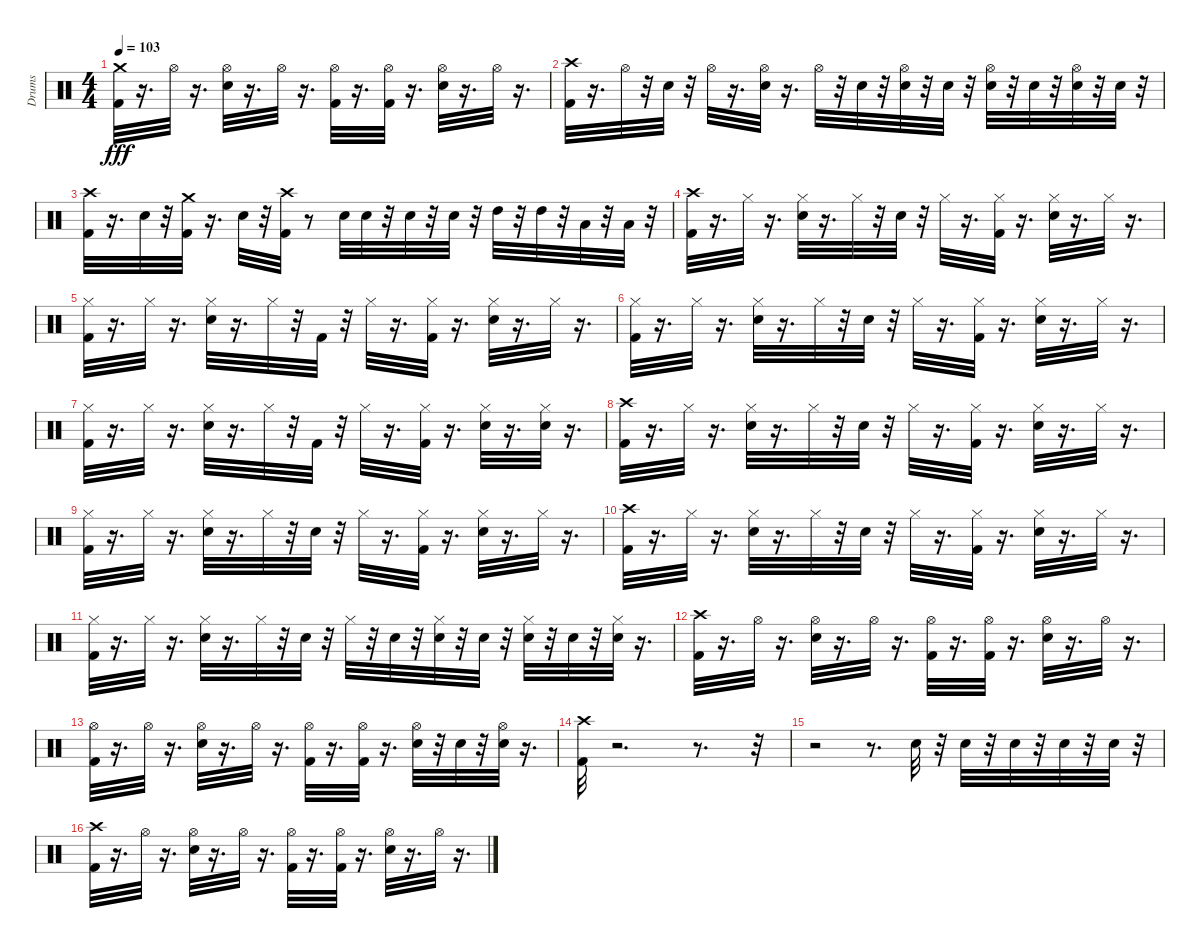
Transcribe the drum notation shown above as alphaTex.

\track ("Drums" "Drums") {instrument percussion}
\staff {score}
\articulation defaults
\ts (4 4)
\tempo 103
\clef neutral
\ks c
("Crash medium (hit)" "Kick (hit) 2").32{dy fff} r.16{d} "Hi-Hat (open)".32 r.16{d} ("Hi-Hat (open)" "Electric Snare (hit)").32 r.16{d} "Hi-Hat (open)".32 r.16{d} ("Hi-Hat (open)" "Kick (hit) 2").32 r.16{d} ("Kick (hit) 2" "Hi-Hat (open)").32 r.16{d} ("Electric Snare (hit)" "Hi-Hat (open)").32 r.16{d} "Hi-Hat (open)".32 r.16{d} |
("Crash high (hit)" "Kick (hit) 2").32 r.16{d} "Hi-Hat (open)".32 r.32 "Electric Snare (hit)".32 r.32 "Hi-Hat (open)".32 r.16{d} ("Hi-Hat (open)" "Electric Snare (hit)").32 r.16{d} "Hi-Hat (open)".32 r.32 "Electric Snare (hit)".32 r.32 ("Electric Snare (hit)" "Hi-Hat (open)").32 r.32 "Electric Snare (hit)".32 r.32 ("Electric Snare (hit)" "Hi-Hat (open)").32 r.32 "Electric Snare (hit)".32 r.32 ("Electric Snare (hit)" "Hi-Hat (open)").32 r.32 "Electric Snare (hit)".32 r.32 |
("Kick (hit) 2" "Crash high (hit)").32 r.16{d} "Electric Snare (hit)".32 r.32 ("Kick (hit) 2" "Crash medium (hit)").32 r.16{d} "Electric Snare (hit)".32 r.32 ("Kick (hit) 2" "Crash high (hit)").32 r.8 "Electric Snare (hit)".32 "Electric Snare (hit)".32 r.32 "Electric Snare (hit)".32 r.32 "Electric Snare (hit)".32 r.32 "High Tom (hit)".32 r.32 "High Tom (hit)".32 r.32 "Low Tom (hit)".32 r.32 "Low Floor Tom (hit)".32 r.32 |
("Crash high (hit)" "Kick (hit) 2").32 r.16{d} "Hi-Hat (closed)".32 r.16{d} ("Electric Snare (hit)" "Hi-Hat (closed)").32 r.16{d} "Hi-Hat (closed)".32 r.32 "Electric Snare (hit)".32 r.32 "Hi-Hat (closed)".32 r.16{d} ("Kick (hit) 2" "Hi-Hat (closed)").32 r.16{d} ("Hi-Hat (closed)" "Electric Snare (hit)").32 r.16{d} "Hi-Hat (closed)".32 r.16{d} |
("Hi-Hat (closed)" "Kick (hit) 2").32 r.16{d} "Hi-Hat (closed)".32 r.16{d} ("Electric Snare (hit)" "Hi-Hat (closed)").32 r.16{d} "Hi-Hat (closed)".32 r.32 "Kick (hit) 2".32 r.32 "Hi-Hat (closed)".32 r.16{d} ("Hi-Hat (closed)" "Kick (hit) 2").32 r.16{d} ("Hi-Hat (closed)" "Electric Snare (hit)").32 r.16{d} "Hi-Hat (closed)".32 r.16{d} |
("Hi-Hat (closed)" "Kick (hit) 2").32 r.16{d} "Hi-Hat (closed)".32 r.16{d} ("Electric Snare (hit)" "Hi-Hat (closed)").32 r.16{d} "Hi-Hat (closed)".32 r.32 "Electric Snare (hit)".32 r.32 "Hi-Hat (closed)".32 r.16{d} ("Kick (hit) 2" "Hi-Hat (closed)").32 r.16{d} ("Hi-Hat (closed)" "Electric Snare (hit)").32 r.16{d} "Hi-Hat (closed)".32 r.16{d} |
("Hi-Hat (closed)" "Kick (hit) 2").32 r.16{d} "Hi-Hat (closed)".32 r.16{d} ("Hi-Hat (closed)" "Electric Snare (hit)").32 r.16{d} "Hi-Hat (closed)".32 r.32 "Kick (hit) 2".32 r.32 "Hi-Hat (closed)".32 r.16{d} ("Hi-Hat (closed)" "Kick (hit) 2").32 r.16{d} ("Hi-Hat (closed)" "Electric Snare (hit)").32 r.16{d} ("Hi-Hat (closed)" "Electric Snare (hit)").32 r.16{d} |
("Crash high (hit)" "Kick (hit) 2").32 r.16{d} "Hi-Hat (closed)".32 r.16{d} ("Hi-Hat (closed)" "Electric Snare (hit)").32 r.16{d} "Hi-Hat (closed)".32 r.32 "Electric Snare (hit)".32 r.32 "Hi-Hat (closed)".32 r.16{d} ("Hi-Hat (closed)" "Kick (hit) 2").32 r.16{d} ("Hi-Hat (closed)" "Electric Snare (hit)").32 r.16{d} "Hi-Hat (closed)".32 r.16{d} |
("Hi-Hat (closed)" "Kick (hit) 2").32 r.16{d} "Hi-Hat (closed)".32 r.16{d} ("Hi-Hat (closed)" "Electric Snare (hit)").32 r.16{d} "Hi-Hat (closed)".32 r.32 "Electric Snare (hit)".32 r.32 "Hi-Hat (closed)".32 r.16{d} ("Hi-Hat (closed)" "Kick (hit) 2").32 r.16{d} ("Hi-Hat (closed)" "Electric Snare (hit)").32 r.16{d} "Hi-Hat (closed)".32 r.16{d} |
("Crash high (hit)" "Kick (hit) 2").32 r.16{d} "Hi-Hat (closed)".32 r.16{d} ("Hi-Hat (closed)" "Electric Snare (hit)").32 r.16{d} "Hi-Hat (closed)".32 r.32 "Electric Snare (hit)".32 r.32 "Hi-Hat (closed)".32 r.16{d} ("Hi-Hat (closed)" "Kick (hit) 2").32 r.16{d} ("Hi-Hat (closed)" "Electric Snare (hit)").32 r.16{d} "Hi-Hat (closed)".32 r.16{d} |
("Hi-Hat (closed)" "Kick (hit) 2").32 r.16{d} "Hi-Hat (closed)".32 r.16{d} ("Hi-Hat (closed)" "Electric Snare (hit)").32 r.16{d} "Hi-Hat (closed)".32 r.32 "Electric Snare (hit)".32 r.32 "Hi-Hat (closed)".32 r.32 "Electric Snare (hit)".32 r.32 ("Hi-Hat (closed)" "Electric Snare (hit)").32 r.32 "Electric Snare (hit)".32 r.32 ("Hi-Hat (closed)" "Electric Snare (hit)").32 r.32 "Electric Snare (hit)".32 r.32 ("Hi-Hat (closed)" "Electric Snare (hit)").32 r.16{d} |
("Crash high (hit)" "Kick (hit) 2").32 r.16{d} "Hi-Hat (open)".32 r.16{d} ("Hi-Hat (open)" "Electric Snare (hit)").32 r.16{d} "Hi-Hat (open)".32 r.16{d} ("Hi-Hat (open)" "Kick (hit) 2").32 r.16{d} ("Hi-Hat (open)" "Kick (hit) 2").32 r.16{d} ("Hi-Hat (open)" "Electric Snare (hit)").32 r.16{d} "Hi-Hat (open)".32 r.16{d} |
("Hi-Hat (open)" "Kick (hit) 2").32 r.16{d} "Hi-Hat (open)".32 r.16{d} ("Hi-Hat (open)" "Electric Snare (hit)").32 r.16{d} "Hi-Hat (open)".32 r.16{d} ("Hi-Hat (open)" "Kick (hit) 2").32 r.16{d} ("Hi-Hat (open)" "Kick (hit) 2").32 r.16{d} ("Hi-Hat (open)" "Electric Snare (hit)").32 r.32 "Electric Snare (hit)".32 r.32 ("Hi-Hat (open)" "Electric Snare (hit)").32 r.16{d} |
("Kick (hit) 2" "Crash high (hit)").32 r.2{d} r.8{d} r.32 |
r.2 r.8{d} "Electric Snare (hit)".32 r.32 "Electric Snare (hit)".32 r.32 "Electric Snare (hit)".32 r.32 "Electric Snare (hit)".32 r.32 "Electric Snare (hit)".32 r.32 |
("Kick (hit) 2" "Crash high (hit)").32 r.16{d} "Hi-Hat (open)".32 r.16{d} ("Electric Snare (hit)" "Hi-Hat (open)").32 r.16{d} "Hi-Hat (open)".32 r.16{d} ("Kick (hit) 2" "Hi-Hat (open)").32 r.16{d} ("Kick (hit) 2" "Hi-Hat (open)").32 r.16{d} ("Electric Snare (hit)" "Hi-Hat (open)").32 r.16{d} "Hi-Hat (open)".32 r.16{d}
